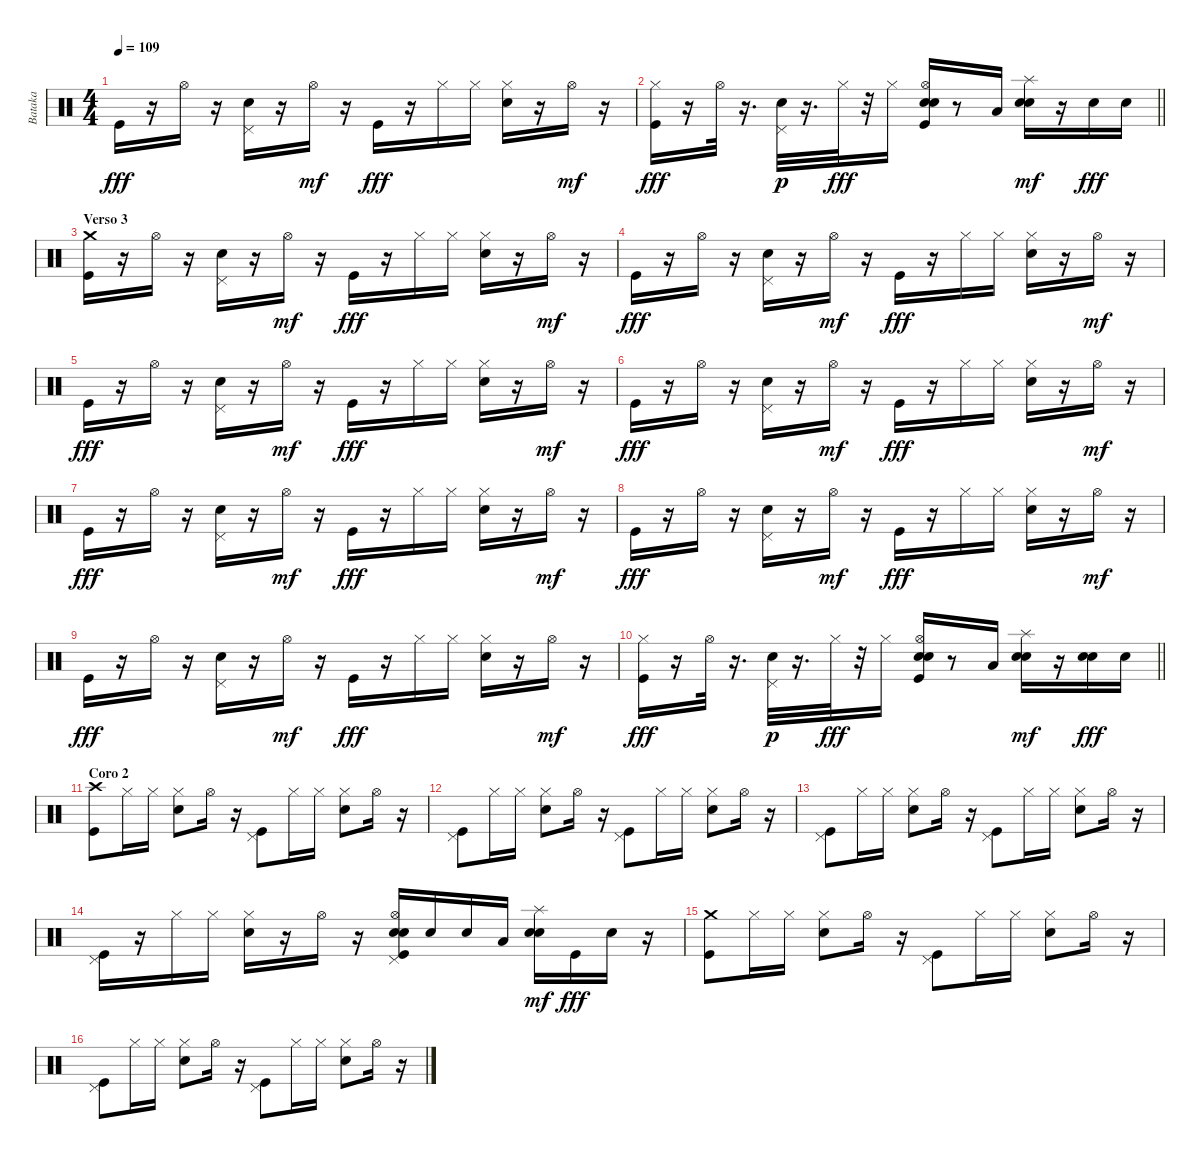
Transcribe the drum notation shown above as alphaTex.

\track ("Bataka" "Bataka") {instrument percussion}
\staff {score}
\articulation defaults
\ts (4 4)
\tempo 109
\clef neutral
\ks c "Kick (hit)".16{dy fff}
r.16 "Hi-Hat (open)".16 r.16 ("Snare (hit) 2" "Pedal Hi-Hat (hit)").16 r.16 "Hi-Hat (open)".16{dy mf} r.16 "Kick (hit)".16{dy fff} r.16 "Hi-Hat (closed)".16 "Hi-Hat (closed)".16 ("Snare (hit) 2" "Hi-Hat (closed)").16 r.16 "Hi-Hat (open)".16{dy mf} r.16 |
\barLineRight lightlight
("Kick (hit)" "Hi-Hat (closed)").16{dy fff} r.16 "Hi-Hat (open)".32 r.16{d} ("Snare (hit) 2" "Pedal Hi-Hat (hit)").32{dy p} r.16{d} "Hi-Hat (closed)".32{dy fff} r.32 "Hi-Hat (closed)".16 ("Snare (hit) 2" "Kick (hit)" "Snare (hit) 2" "Hi-Hat (open)").16 r.8 "Low Floor Tom (hit)".16 ("Snare (hit) 2" "Snare (hit) 2" "Splash (hit)").16{dy mf} r.16 "Snare (hit) 2".16{dy fff} "Snare (hit) 2".16 |
\section ("" "Verso 3")
("Kick (hit)" "Crash medium (hit)").16 r.16 "Hi-Hat (open)".16 r.16 ("Pedal Hi-Hat (hit)" "Snare (hit) 2").16 r.16 "Hi-Hat (open)".16{dy mf} r.16 "Kick (hit)".16{dy fff} r.16 "Hi-Hat (closed)".16 "Hi-Hat (closed)".16 ("Hi-Hat (closed)" "Snare (hit) 2").16 r.16 "Hi-Hat (open)".16{dy mf} r.16 |
"Kick (hit)".16{dy fff} r.16 "Hi-Hat (open)".16 r.16 ("Snare (hit) 2" "Pedal Hi-Hat (hit)").16 r.16 "Hi-Hat (open)".16{dy mf} r.16 "Kick (hit)".16{dy fff} r.16 "Hi-Hat (closed)".16 "Hi-Hat (closed)".16 ("Snare (hit) 2" "Hi-Hat (closed)").16 r.16 "Hi-Hat (open)".16{dy mf} r.16 |
"Kick (hit)".16{dy fff} r.16 "Hi-Hat (open)".16 r.16 ("Snare (hit) 2" "Pedal Hi-Hat (hit)").16 r.16 "Hi-Hat (open)".16{dy mf} r.16 "Kick (hit)".16{dy fff} r.16 "Hi-Hat (closed)".16 "Hi-Hat (closed)".16 ("Snare (hit) 2" "Hi-Hat (closed)").16 r.16 "Hi-Hat (open)".16{dy mf} r.16 |
"Kick (hit)".16{dy fff} r.16 "Hi-Hat (open)".16 r.16 ("Snare (hit) 2" "Pedal Hi-Hat (hit)").16 r.16 "Hi-Hat (open)".16{dy mf} r.16 "Kick (hit)".16{dy fff} r.16 "Hi-Hat (closed)".16 "Hi-Hat (closed)".16 ("Snare (hit) 2" "Hi-Hat (closed)").16 r.16 "Hi-Hat (open)".16{dy mf} r.16 |
"Kick (hit)".16{dy fff} r.16 "Hi-Hat (open)".16 r.16 ("Snare (hit) 2" "Pedal Hi-Hat (hit)").16 r.16 "Hi-Hat (open)".16{dy mf} r.16 "Kick (hit)".16{dy fff} r.16 "Hi-Hat (closed)".16 "Hi-Hat (closed)".16 ("Snare (hit) 2" "Hi-Hat (closed)").16 r.16 "Hi-Hat (open)".16{dy mf} r.16 |
"Kick (hit)".16{dy fff} r.16 "Hi-Hat (open)".16 r.16 ("Snare (hit) 2" "Pedal Hi-Hat (hit)").16 r.16 "Hi-Hat (open)".16{dy mf} r.16 "Kick (hit)".16{dy fff} r.16 "Hi-Hat (closed)".16 "Hi-Hat (closed)".16 ("Snare (hit) 2" "Hi-Hat (closed)").16 r.16 "Hi-Hat (open)".16{dy mf} r.16 |
"Kick (hit)".16{dy fff} r.16 "Hi-Hat (open)".16 r.16 ("Snare (hit) 2" "Pedal Hi-Hat (hit)").16 r.16 "Hi-Hat (open)".16{dy mf} r.16 "Kick (hit)".16{dy fff} r.16 "Hi-Hat (closed)".16 "Hi-Hat (closed)".16 ("Snare (hit) 2" "Hi-Hat (closed)").16 r.16 "Hi-Hat (open)".16{dy mf} r.16 |
\barLineRight lightlight
("Kick (hit)" "Hi-Hat (closed)").16{dy fff} r.16 "Hi-Hat (open)".32 r.16{d} ("Snare (hit) 2" "Pedal Hi-Hat (hit)").32{dy p} r.16{d} "Hi-Hat (closed)".32{dy fff} r.32 "Hi-Hat (closed)".16 ("Snare (hit) 2" "Kick (hit)" "Snare (hit) 2" "Hi-Hat (open)").16 r.8 "Low Floor Tom (hit)".16 ("Snare (hit) 2" "Snare (hit) 2" "Splash (hit)").16{dy mf} r.16 ("Snare (hit) 2" "Snare (hit) 2").16{dy fff} "Snare (hit) 2".16 |
\section ("" "Coro 2")
("Kick (hit)" "Crash high (hit)").8 "Hi-Hat (closed)".16 "Hi-Hat (closed)".16 ("Snare (hit) 2" "Hi-Hat (closed)").8 "Hi-Hat (open)".16 r.16 ("Kick (hit)" "Pedal Hi-Hat (hit)").8 "Hi-Hat (closed)".16 "Hi-Hat (closed)".16 ("Snare (hit) 2" "Hi-Hat (closed)").8 "Hi-Hat (open)".16 r.16 |
("Kick (hit)" "Pedal Hi-Hat (hit)").8 "Hi-Hat (closed)".16 "Hi-Hat (closed)".16 ("Snare (hit) 2" "Hi-Hat (closed)").8 "Hi-Hat (open)".16 r.16 ("Kick (hit)" "Pedal Hi-Hat (hit)").8 "Hi-Hat (closed)".16 "Hi-Hat (closed)".16 ("Snare (hit) 2" "Hi-Hat (closed)").8 "Hi-Hat (open)".16 r.16 |
("Kick (hit)" "Pedal Hi-Hat (hit)").8 "Hi-Hat (closed)".16 "Hi-Hat (closed)".16 ("Snare (hit) 2" "Hi-Hat (closed)").8 "Hi-Hat (open)".16 r.16 ("Kick (hit)" "Pedal Hi-Hat (hit)").8 "Hi-Hat (closed)".16 "Hi-Hat (closed)".16 ("Snare (hit) 2" "Hi-Hat (closed)").8 "Hi-Hat (open)".16 r.16 |
("Kick (hit)" "Pedal Hi-Hat (hit)").16 r.16 "Hi-Hat (closed)".16 "Hi-Hat (closed)".16 ("Snare (hit) 2" "Hi-Hat (closed)").16 r.16 "Hi-Hat (open)".16 r.16 ("Snare (hit) 2" "Kick (hit)" "Snare (hit) 2" "Hi-Hat (open)" "Pedal Hi-Hat (hit)").16 "Snare (hit) 2".16 "Snare (hit) 2".16 "Low Floor Tom (hit)".16 ("Snare (hit) 2" "Snare (hit) 2" "Splash (hit)").16{dy mf} "Kick (hit)".16{dy fff} "Snare (hit) 2".16 r.16 |
("Kick (hit)" "Crash medium (hit)").8 "Hi-Hat (closed)".16 "Hi-Hat (closed)".16 ("Snare (hit) 2" "Hi-Hat (closed)").8 "Hi-Hat (open)".16 r.16 ("Kick (hit)" "Pedal Hi-Hat (hit)").8 "Hi-Hat (closed)".16 "Hi-Hat (closed)".16 ("Snare (hit) 2" "Hi-Hat (closed)").8 "Hi-Hat (open)".16 r.16 |
("Kick (hit)" "Pedal Hi-Hat (hit)").8 "Hi-Hat (closed)".16 "Hi-Hat (closed)".16 ("Snare (hit) 2" "Hi-Hat (closed)").8 "Hi-Hat (open)".16 r.16 ("Kick (hit)" "Pedal Hi-Hat (hit)").8 "Hi-Hat (closed)".16 "Hi-Hat (closed)".16 ("Snare (hit) 2" "Hi-Hat (closed)").8 "Hi-Hat (open)".16 r.16
